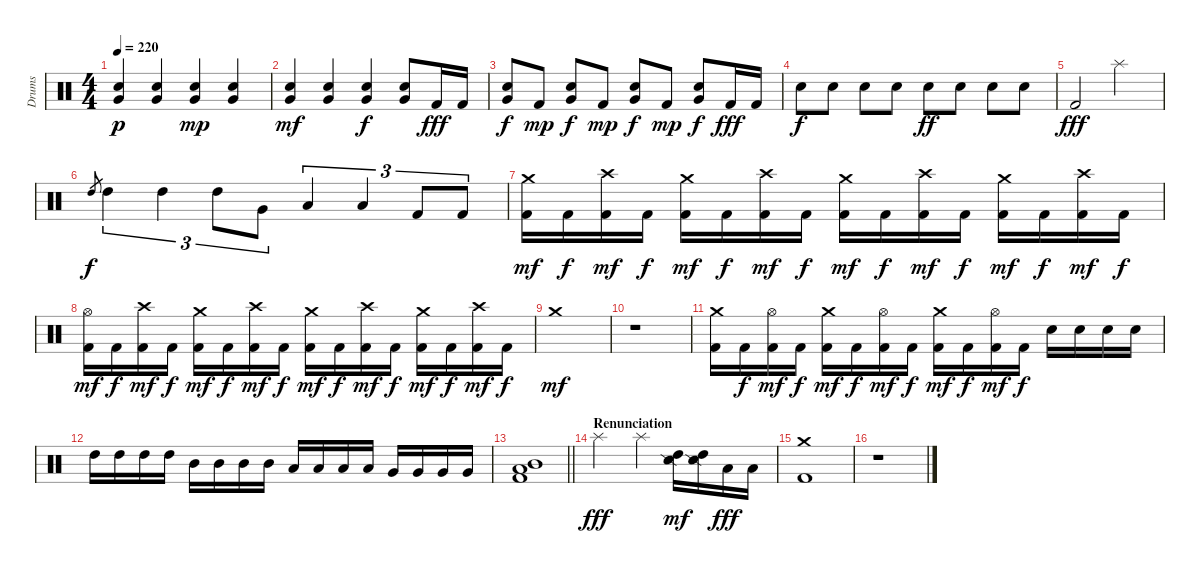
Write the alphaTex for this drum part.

\track ("Drums" "Drums") {instrument percussion}
\staff {score}
\articulation defaults
\ts (4 4)
\tempo 220
\clef neutral
\ks c
("Very Low Tom (hit)" "Electric Snare (hit)").4{dy p} ("Very Low Tom (hit)" "Electric Snare (hit)").4 ("Very Low Tom (hit)" "Electric Snare (hit)").4{dy mp} ("Very Low Tom (hit)" "Electric Snare (hit)").4 |
("Very Low Tom (hit)" "Electric Snare (hit)").4{dy mf} ("Very Low Tom (hit)" "Electric Snare (hit)").4 ("Very Low Tom (hit)" "Electric Snare (hit)").4{dy f} ("Very Low Tom (hit)" "Electric Snare (hit)").8 "Kick (hit) 2".16{dy fff} "Kick (hit) 2".16 |
("Very Low Tom (hit)" "Electric Snare (hit)").8{dy f} "Kick (hit) 2".8{dy mp} ("Very Low Tom (hit)" "Electric Snare (hit)").8{dy f} "Kick (hit) 2".8{dy mp} ("Very Low Tom (hit)" "Electric Snare (hit)").8{dy f} "Kick (hit) 2".8{dy mp} ("Very Low Tom (hit)" "Electric Snare (hit)").8{dy f} "Kick (hit) 2".16{dy fff} "Kick (hit) 2".16 |
"Electric Snare (hit)".8{dy f} "Electric Snare (hit)".8 "Electric Snare (hit)".8 "Electric Snare (hit)".8 "Electric Snare (hit)".8{dy ff} "Electric Snare (hit)".8 "Electric Snare (hit)".8 "Electric Snare (hit)".8 |
"Kick (hit) 2".2{dy fff} "Splash (hit)".2 |
"High Tom (hit)".8{gr dy f} "High Tom (hit)".4{tu (3 2)} "High Tom (hit)".4{tu (3 2)} "High Tom (hit)".8{tu (3 2)} "Very Low Tom (hit)".8{tu (3 2)} "Low Tom (hit)".4{tu (3 2)} "Low Tom (hit)".4{tu (3 2)} "Kick (hit) 2".8{tu (3 2)} "Kick (hit) 2".8{tu (3 2)} |
("Crash medium (hit)" "Kick (hit) 2").16{dy mf} "Kick (hit) 2".16{dy f} ("Crash high (hit)" "Kick (hit) 2").16{dy mf} "Kick (hit) 2".16{dy f} ("Crash medium (hit)" "Kick (hit) 2").16{dy mf} "Kick (hit) 2".16{dy f} ("Crash high (hit)" "Kick (hit) 2").16{dy mf} "Kick (hit) 2".16{dy f} ("Crash medium (hit)" "Kick (hit) 2").16{dy mf} "Kick (hit) 2".16{dy f} ("Crash high (hit)" "Kick (hit) 2").16{dy mf} "Kick (hit) 2".16{dy f} ("Crash medium (hit)" "Kick (hit) 2").16{dy mf} "Kick (hit) 2".16{dy f} ("Crash high (hit)" "Kick (hit) 2").16{dy mf} "Kick (hit) 2".16{dy f} |
("Hi-Hat (open)" "Kick (hit) 2").16{dy mf} "Kick (hit) 2".16{dy f} ("Crash high (hit)" "Kick (hit) 2").16{dy mf} "Kick (hit) 2".16{dy f} ("Crash medium (hit)" "Kick (hit) 2").16{dy mf} "Kick (hit) 2".16{dy f} ("Crash high (hit)" "Kick (hit) 2").16{dy mf} "Kick (hit) 2".16{dy f} ("Crash medium (hit)" "Kick (hit) 2").16{dy mf} "Kick (hit) 2".16{dy f} ("Crash high (hit)" "Kick (hit) 2").16{dy mf} "Kick (hit) 2".16{dy f} ("Crash medium (hit)" "Kick (hit) 2").16{dy mf} "Kick (hit) 2".16{dy f} ("Crash high (hit)" "Kick (hit) 2").16{dy mf} "Kick (hit) 2".16{dy f} |
"Crash medium (hit)".1{dy mf} |
r.1 |
("Crash medium (hit)" "Kick (hit) 2").16 "Kick (hit) 2".16{dy f} ("Hi-Hat (open)" "Kick (hit) 2").16{dy mf} "Kick (hit) 2".16{dy f} ("Crash medium (hit)" "Kick (hit) 2").16{dy mf} "Kick (hit) 2".16{dy f} ("Hi-Hat (open)" "Kick (hit) 2").16{dy mf} "Kick (hit) 2".16{dy f} ("Crash medium (hit)" "Kick (hit) 2").16{dy mf} "Kick (hit) 2".16{dy f} ("Hi-Hat (open)" "Kick (hit) 2").16{dy mf} "Kick (hit) 2".16{dy f} "Electric Snare (hit)".16 "Electric Snare (hit)".16 "Electric Snare (hit)".16 "Electric Snare (hit)".16 |
"High Tom (hit)".16 "High Tom (hit)".16 "High Tom (hit)".16 "High Tom (hit)".16 "Mid Tom (hit)".16 "Mid Tom (hit)".16 "Mid Tom (hit)".16 "Mid Tom (hit)".16 "Low Tom (hit)".16 "Low Tom (hit)".16 "Low Tom (hit)".16 "Low Tom (hit)".16 "Very Low Tom (hit)".16 "Very Low Tom (hit)".16 "Very Low Tom (hit)".16 "Very Low Tom (hit)".16 |
\barLineRight lightlight
("Mid Tom (hit)" "Low Tom (hit)" "Kick (hit) 2").1 |
\section ("" "Renunciation")
"Splash (hit)".2{dy fff} "Splash (hit)".4 ("High Tom (hit)" "Snare (side stick) 2").16{dy mf} ("High Tom (hit)" "Snare (side stick) 2").16 "Low Tom (hit)".16{dy fff} "Low Tom (hit)".16 |
("Crash medium (hit)" "Kick (hit) 2").1 |
r.1
